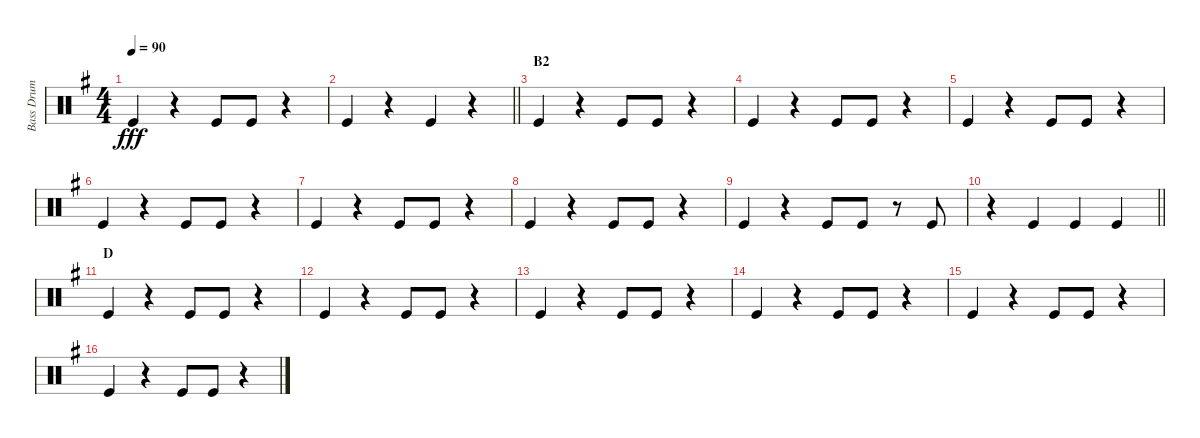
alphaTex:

\track ("Bass Drum" "Bass Drum") {instrument percussion}
\staff {score}
\articulation defaults
\ts (4 4)
\tempo 90
\clef neutral
\ks g "Kick (hit)".4{dy fff}
r.4 "Kick (hit)".8 "Kick (hit)".8 r.4 |
\barLineRight lightlight "Kick (hit)".4
r.4 "Kick (hit)".4 r.4 |
\section ("" "B2")
"Kick (hit)".4 r.4 "Kick (hit)".8 "Kick (hit)".8 r.4 |
"Kick (hit)".4 r.4 "Kick (hit)".8 "Kick (hit)".8 r.4 |
"Kick (hit)".4 r.4 "Kick (hit)".8 "Kick (hit)".8 r.4 |
"Kick (hit)".4 r.4 "Kick (hit)".8 "Kick (hit)".8 r.4 |
"Kick (hit)".4 r.4 "Kick (hit)".8 "Kick (hit)".8 r.4 |
"Kick (hit)".4 r.4 "Kick (hit)".8 "Kick (hit)".8 r.4 |
"Kick (hit)".4 r.4 "Kick (hit)".8 "Kick (hit)".8 r.8 "Kick (hit)".8 |
\barLineRight lightlight
r.4 "Kick (hit)".4 "Kick (hit)".4 "Kick (hit)".4 |
\section ("" "D")
"Kick (hit)".4 r.4 "Kick (hit)".8 "Kick (hit)".8 r.4 |
"Kick (hit)".4 r.4 "Kick (hit)".8 "Kick (hit)".8 r.4 |
"Kick (hit)".4 r.4 "Kick (hit)".8 "Kick (hit)".8 r.4 |
"Kick (hit)".4 r.4 "Kick (hit)".8 "Kick (hit)".8 r.4 |
"Kick (hit)".4 r.4 "Kick (hit)".8 "Kick (hit)".8 r.4 |
"Kick (hit)".4 r.4 "Kick (hit)".8 "Kick (hit)".8 r.4
